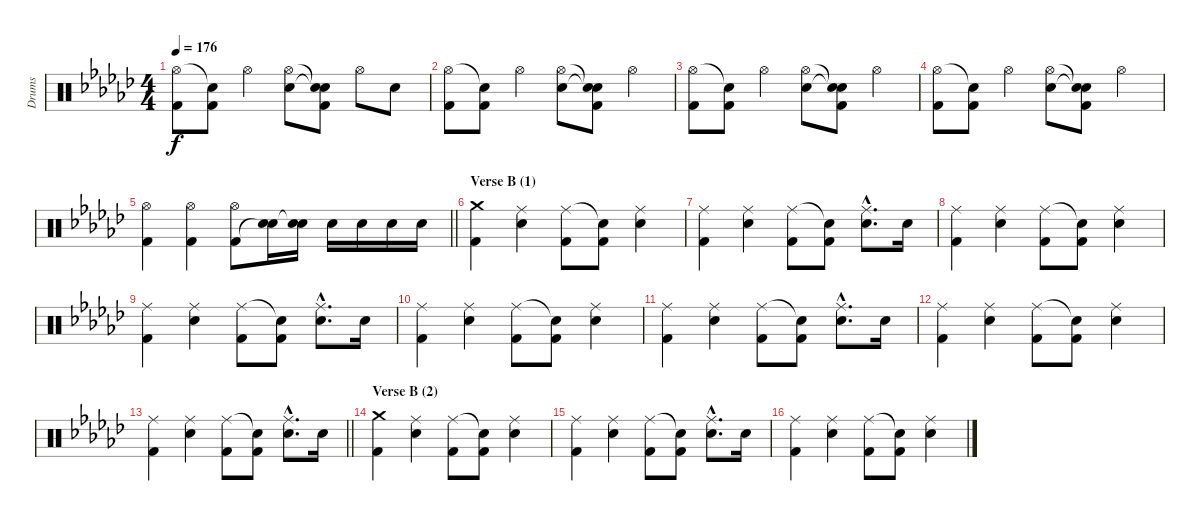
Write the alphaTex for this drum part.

\track ("Drums" "Drums") {instrument percussion}
\staff {score}
\articulation defaults
\ts (4 4)
\tempo 176
\clef neutral
\ks ebminor
("Hi-Hat (open)" "Kick (hit) 2").8{dy f} ("Snare (hit)"{t} "Kick (hit) 2").8 "Hi-Hat (open)".4 ("Hi-Hat (open)" "Electric Snare (hit)").8 ("Snare (hit)"{t} "Snare (hit)"{t} "Kick (hit) 2").8 "Hi-Hat (open)".8 "Electric Snare (hit)".8 |
("Hi-Hat (open)" "Kick (hit) 2").8 ("Snare (hit)"{t} "Kick (hit) 2").8 "Hi-Hat (open)".4 ("Hi-Hat (open)" "Electric Snare (hit)").8 ("Snare (hit)"{t} "Snare (hit)"{t} "Kick (hit) 2").8 "Hi-Hat (open)".4 |
("Hi-Hat (open)" "Kick (hit) 2").8 ("Snare (hit)"{t} "Kick (hit) 2").8 "Hi-Hat (open)".4 ("Hi-Hat (open)" "Electric Snare (hit)").8 ("Snare (hit)"{t} "Snare (hit)"{t} "Kick (hit) 2").8 "Hi-Hat (open)".4 |
("Hi-Hat (open)" "Kick (hit) 2").8 ("Snare (hit)"{t} "Kick (hit) 2").8 "Hi-Hat (open)".4 ("Hi-Hat (open)" "Electric Snare (hit)").8 ("Snare (hit)"{t} "Snare (hit)"{t} "Kick (hit) 2").8 "Hi-Hat (open)".4 |
\barLineRight lightlight
("Hi-Hat (open)" "Kick (hit) 2").4 ("Hi-Hat (open)" "Kick (hit) 2").4 ("Hi-Hat (open)" "Kick (hit) 2").8 ("Electric Snare (hit)" "Snare (hit)"{t}).16 ("Electric Snare (hit)" "Snare (hit)"{t}).16 "Electric Snare (hit)".16 "Electric Snare (hit)".16 "Electric Snare (hit)".16 "Electric Snare (hit)".16 |
\section ("" "Verse B (1)")
("Crash medium (hit)" "Kick (hit) 2").4 ("Ride (middle)" "Electric Snare (hit)").4 ("Ride (middle)" "Kick (hit) 2").8 ("Snare (hit)"{t} "Kick (hit) 2").8 ("Ride (middle)" "Electric Snare (hit)").4 |
("Ride (middle)" "Kick (hit) 2").4 ("Ride (middle)" "Electric Snare (hit)").4 ("Ride (middle)" "Kick (hit) 2").8 ("Snare (hit)"{t} "Kick (hit) 2").8 ("Ride (middle)"{hac} "Electric Snare (hit)"{hac}).8{d} "Electric Snare (hit)".16 |
("Ride (middle)" "Kick (hit) 2").4 ("Ride (middle)" "Electric Snare (hit)").4 ("Ride (middle)" "Kick (hit) 2").8 ("Snare (hit)"{t} "Kick (hit) 2").8 ("Ride (middle)" "Electric Snare (hit)").4 |
("Ride (middle)" "Kick (hit) 2").4 ("Ride (middle)" "Electric Snare (hit)").4 ("Ride (middle)" "Kick (hit) 2").8 ("Snare (hit)"{t} "Kick (hit) 2").8 ("Ride (middle)"{hac} "Electric Snare (hit)"{hac}).8{d} "Electric Snare (hit)".16 |
("Ride (middle)" "Kick (hit) 2").4 ("Ride (middle)" "Electric Snare (hit)").4 ("Ride (middle)" "Kick (hit) 2").8 ("Snare (hit)"{t} "Kick (hit) 2").8 ("Ride (middle)" "Electric Snare (hit)").4 |
("Ride (middle)" "Kick (hit) 2").4 ("Ride (middle)" "Electric Snare (hit)").4 ("Ride (middle)" "Kick (hit) 2").8 ("Snare (hit)"{t} "Kick (hit) 2").8 ("Ride (middle)"{hac} "Electric Snare (hit)"{hac}).8{d} "Electric Snare (hit)".16 |
("Ride (middle)" "Kick (hit) 2").4 ("Ride (middle)" "Electric Snare (hit)").4 ("Ride (middle)" "Kick (hit) 2").8 ("Snare (hit)"{t} "Kick (hit) 2").8 ("Ride (middle)" "Electric Snare (hit)").4 |
\barLineRight lightlight
("Ride (middle)" "Kick (hit) 2").4 ("Ride (middle)" "Electric Snare (hit)").4 ("Ride (middle)" "Kick (hit) 2").8 ("Snare (hit)"{t} "Kick (hit) 2").8 ("Ride (middle)"{hac} "Electric Snare (hit)"{hac}).8{d} "Electric Snare (hit)".16 |
\section ("" "Verse B (2)")
("Crash medium (hit)" "Kick (hit) 2").4 ("Ride (middle)" "Electric Snare (hit)").4 ("Ride (middle)" "Kick (hit) 2").8 ("Snare (hit)"{t} "Kick (hit) 2").8 ("Ride (middle)" "Electric Snare (hit)").4 |
("Ride (middle)" "Kick (hit) 2").4 ("Ride (middle)" "Electric Snare (hit)").4 ("Ride (middle)" "Kick (hit) 2").8 ("Snare (hit)"{t} "Kick (hit) 2").8 ("Ride (middle)"{hac} "Electric Snare (hit)"{hac}).8{d} "Electric Snare (hit)".16 |
("Ride (middle)" "Kick (hit) 2").4 ("Ride (middle)" "Electric Snare (hit)").4 ("Ride (middle)" "Kick (hit) 2").8 ("Snare (hit)"{t} "Kick (hit) 2").8 ("Ride (middle)" "Electric Snare (hit)").4
